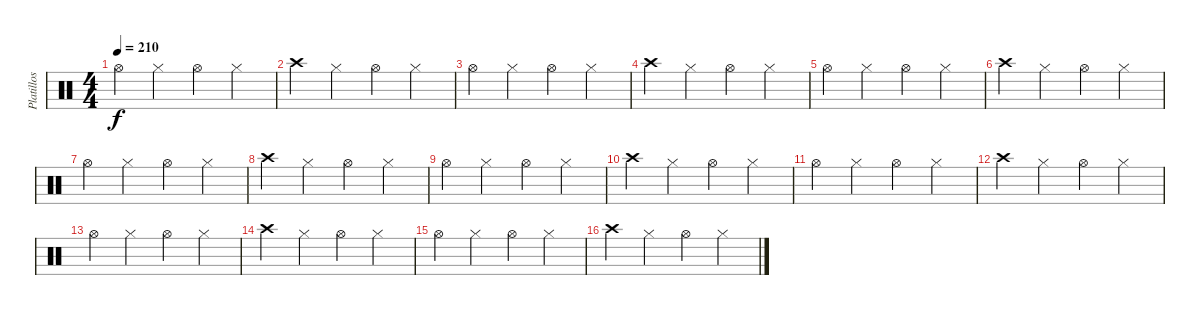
\track ("Platillos (Leo)" "Platillos ") {instrument percussion}
\staff {score}
\articulation defaults
\ts (4 4)
\tempo 210
\clef neutral
\ks c "Hi-Hat (open)".4{dy f} "Hi-Hat (closed)".4 "Hi-Hat (open)".4 "Hi-Hat (closed)".4
|
"Crash high (hit)".4 "Hi-Hat (closed)".4 "Hi-Hat (open)".4 "Hi-Hat (closed)".4 |
"Hi-Hat (open)".4 "Hi-Hat (closed)".4 "Hi-Hat (open)".4 "Hi-Hat (closed)".4 |
"Crash high (hit)".4 "Hi-Hat (closed)".4 "Hi-Hat (open)".4 "Hi-Hat (closed)".4 |
"Hi-Hat (open)".4 "Hi-Hat (closed)".4 "Hi-Hat (open)".4 "Hi-Hat (closed)".4 |
"Crash high (hit)".4 "Hi-Hat (closed)".4 "Hi-Hat (open)".4 "Hi-Hat (closed)".4 |
"Hi-Hat (open)".4 "Hi-Hat (closed)".4 "Hi-Hat (open)".4 "Hi-Hat (closed)".4 |
"Crash high (hit)".4 "Hi-Hat (closed)".4 "Hi-Hat (open)".4 "Hi-Hat (closed)".4 |
"Hi-Hat (open)".4 "Hi-Hat (closed)".4 "Hi-Hat (open)".4 "Hi-Hat (closed)".4 |
"Crash high (hit)".4 "Hi-Hat (closed)".4 "Hi-Hat (open)".4 "Hi-Hat (closed)".4 |
"Hi-Hat (open)".4 "Hi-Hat (closed)".4 "Hi-Hat (open)".4 "Hi-Hat (closed)".4 |
"Crash high (hit)".4 "Hi-Hat (closed)".4 "Hi-Hat (open)".4 "Hi-Hat (closed)".4 |
"Hi-Hat (open)".4 "Hi-Hat (closed)".4 "Hi-Hat (open)".4 "Hi-Hat (closed)".4 |
"Crash high (hit)".4 "Hi-Hat (closed)".4 "Hi-Hat (open)".4 "Hi-Hat (closed)".4 |
"Hi-Hat (open)".4 "Hi-Hat (closed)".4 "Hi-Hat (open)".4 "Hi-Hat (closed)".4 |
"Crash high (hit)".4 "Hi-Hat (closed)".4 "Hi-Hat (open)".4 "Hi-Hat (closed)".4
